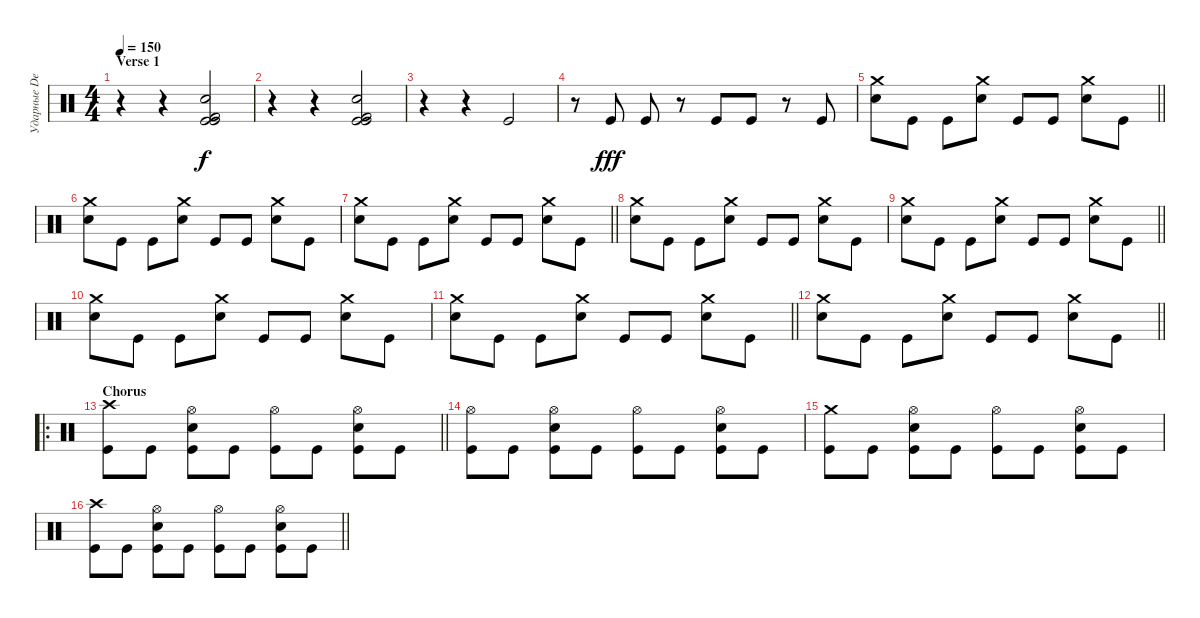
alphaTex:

\track ("Ударные Den" "Ударные De") {instrument percussion}
\staff {score}
\articulation defaults
\ts (4 4)
\section ("" "Verse 1")
\tempo 150
\clef neutral
\ks c
r.4{dy fff} r.4 ("Electric Snare (hit)" "Kick (hit)" "Kick (hit) 2" "Kick (hit)").2{dy f} |
r.4 r.4 ("Kick (hit) 2" "Kick (hit)" "Electric Snare (hit)" "Kick (hit)").2 |
r.4 r.4 "Kick (hit)".2 |
r.8 "Kick (hit)".8{dy fff} "Kick (hit)".8 r.8 "Kick (hit)".8 "Kick (hit)".8 r.8 "Kick (hit)".8 |
\barLineRight lightlight
("Crash medium (hit)" "Electric Snare (hit)").8 "Kick (hit)".8 "Kick (hit)".8 ("Crash medium (hit)" "Electric Snare (hit)").8 "Kick (hit)".8 "Kick (hit)".8 ("Crash medium (hit)" "Electric Snare (hit)").8 "Kick (hit)".8 |
("Crash medium (hit)" "Electric Snare (hit)").8 "Kick (hit)".8 "Kick (hit)".8 ("Crash medium (hit)" "Electric Snare (hit)").8 "Kick (hit)".8 "Kick (hit)".8 ("Crash medium (hit)" "Electric Snare (hit)").8 "Kick (hit)".8 |
\barLineRight lightlight
("Crash medium (hit)" "Electric Snare (hit)").8 "Kick (hit)".8 "Kick (hit)".8 ("Crash medium (hit)" "Electric Snare (hit)").8 "Kick (hit)".8 "Kick (hit)".8 ("Crash medium (hit)" "Electric Snare (hit)").8 "Kick (hit)".8 |
("Crash medium (hit)" "Electric Snare (hit)").8 "Kick (hit)".8 "Kick (hit)".8 ("Crash medium (hit)" "Electric Snare (hit)").8 "Kick (hit)".8 "Kick (hit)".8 ("Crash medium (hit)" "Electric Snare (hit)").8 "Kick (hit)".8 |
\barLineRight lightlight
("Crash medium (hit)" "Electric Snare (hit)").8 "Kick (hit)".8 "Kick (hit)".8 ("Crash medium (hit)" "Electric Snare (hit)").8 "Kick (hit)".8 "Kick (hit)".8 ("Crash medium (hit)" "Electric Snare (hit)").8 "Kick (hit)".8 |
("Crash medium (hit)" "Electric Snare (hit)").8 "Kick (hit)".8 "Kick (hit)".8 ("Crash medium (hit)" "Electric Snare (hit)").8 "Kick (hit)".8 "Kick (hit)".8 ("Crash medium (hit)" "Electric Snare (hit)").8 "Kick (hit)".8 |
\barLineRight lightlight
("Crash medium (hit)" "Electric Snare (hit)").8 "Kick (hit)".8 "Kick (hit)".8 ("Crash medium (hit)" "Electric Snare (hit)").8 "Kick (hit)".8 "Kick (hit)".8 ("Crash medium (hit)" "Electric Snare (hit)").8 "Kick (hit)".8 |
\barLineRight lightlight
("Crash medium (hit)" "Electric Snare (hit)").8 "Kick (hit)".8 "Kick (hit)".8 ("Crash medium (hit)" "Electric Snare (hit)").8 "Kick (hit)".8 "Kick (hit)".8 ("Crash medium (hit)" "Electric Snare (hit)").8 "Kick (hit)".8 |
\ro
\section ("" "Chorus")
\barLineRight lightlight
("Crash high (hit)" "Kick (hit)").8 "Kick (hit)".8 ("Hi-Hat (open)" "Electric Snare (hit)" "Kick (hit)").8 "Kick (hit)".8 ("Hi-Hat (open)" "Kick (hit)").8 "Kick (hit)".8 ("Hi-Hat (open)" "Electric Snare (hit)" "Kick (hit)").8 "Kick (hit)".8 |
("Hi-Hat (open)" "Kick (hit)").8 "Kick (hit)".8 ("Hi-Hat (open)" "Electric Snare (hit)" "Kick (hit)").8 "Kick (hit)".8 ("Hi-Hat (open)" "Kick (hit)").8 "Kick (hit)".8 ("Hi-Hat (open)" "Electric Snare (hit)" "Kick (hit)").8 "Kick (hit)".8 |
("Crash medium (hit)" "Kick (hit)").8 "Kick (hit)".8 ("Hi-Hat (open)" "Electric Snare (hit)" "Kick (hit)").8 "Kick (hit)".8 ("Hi-Hat (open)" "Kick (hit)").8 "Kick (hit)".8 ("Hi-Hat (open)" "Electric Snare (hit)" "Kick (hit)").8 "Kick (hit)".8 |
\barLineRight lightlight
("Crash high (hit)" "Kick (hit)").8 "Kick (hit)".8 ("Hi-Hat (open)" "Electric Snare (hit)" "Kick (hit)").8 "Kick (hit)".8 ("Hi-Hat (open)" "Kick (hit)").8 "Kick (hit)".8 ("Hi-Hat (open)" "Electric Snare (hit)" "Kick (hit)").8 "Kick (hit)".8
